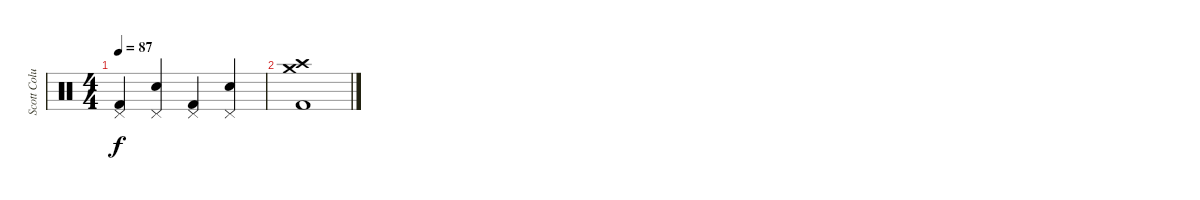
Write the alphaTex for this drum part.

\track ("Scott Columbus" "Scott Colu") {instrument percussion}
\staff {score}
\articulation defaults
\ts (4 4)
\tempo 87
\clef neutral
\ks c
("Pedal Hi-Hat (hit)" "Kick (hit) 2").4{dy f} ("Snare (hit) 2" "Pedal Hi-Hat (hit)").4 ("Pedal Hi-Hat (hit)" "Kick (hit) 2").4 ("Snare (hit) 2" "Pedal Hi-Hat (hit)").4 |
("Crash high (hit)" "Crash medium (hit)" "Kick (hit) 2").1{volume 0}
